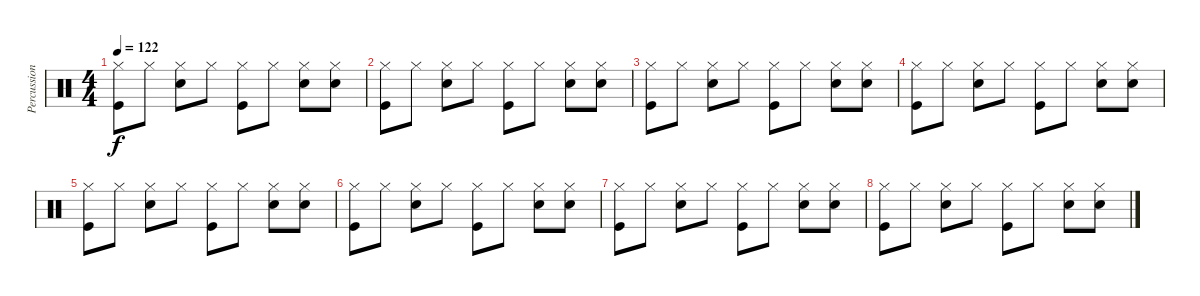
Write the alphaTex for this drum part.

\track ("Percussions" "Percussion") {instrument percussion}
\staff {score}
\articulation defaults
\ts (4 4)
\tempo 122
\clef neutral
\ks c
("Hi-Hat (closed)" "Kick (hit)").8{dy f volume 11} "Hi-Hat (closed)".8 ("Hi-Hat (closed)" "Snare (hit) 2").8 "Hi-Hat (closed)".8 ("Hi-Hat (closed)" "Kick (hit)").8 "Hi-Hat (closed)".8 ("Hi-Hat (closed)" "Snare (hit) 2").8 ("Hi-Hat (closed)" "Snare (hit) 2").8 |
("Hi-Hat (closed)" "Kick (hit)").8 "Hi-Hat (closed)".8 ("Hi-Hat (closed)" "Snare (hit) 2").8 "Hi-Hat (closed)".8 ("Hi-Hat (closed)" "Kick (hit)").8 "Hi-Hat (closed)".8 ("Hi-Hat (closed)" "Snare (hit) 2").8 ("Hi-Hat (closed)" "Snare (hit) 2").8 |
("Hi-Hat (closed)" "Kick (hit)").8{volume 8} "Hi-Hat (closed)".8 ("Hi-Hat (closed)" "Snare (hit) 2").8 "Hi-Hat (closed)".8 ("Hi-Hat (closed)" "Kick (hit)").8 "Hi-Hat (closed)".8 ("Hi-Hat (closed)" "Snare (hit) 2").8 ("Hi-Hat (closed)" "Snare (hit) 2").8 |
("Hi-Hat (closed)" "Kick (hit)").8 "Hi-Hat (closed)".8 ("Hi-Hat (closed)" "Snare (hit) 2").8 "Hi-Hat (closed)".8 ("Hi-Hat (closed)" "Kick (hit)").8 "Hi-Hat (closed)".8 ("Hi-Hat (closed)" "Snare (hit) 2").8 ("Hi-Hat (closed)" "Snare (hit) 2").8 |
("Hi-Hat (closed)" "Kick (hit)").8{volume 5} "Hi-Hat (closed)".8 ("Hi-Hat (closed)" "Snare (hit) 2").8 "Hi-Hat (closed)".8 ("Hi-Hat (closed)" "Kick (hit)").8 "Hi-Hat (closed)".8 ("Hi-Hat (closed)" "Snare (hit) 2").8 ("Hi-Hat (closed)" "Snare (hit) 2").8 |
("Hi-Hat (closed)" "Kick (hit)").8 "Hi-Hat (closed)".8 ("Hi-Hat (closed)" "Snare (hit) 2").8 "Hi-Hat (closed)".8 ("Hi-Hat (closed)" "Kick (hit)").8 "Hi-Hat (closed)".8 ("Hi-Hat (closed)" "Snare (hit) 2").8 ("Hi-Hat (closed)" "Snare (hit) 2").8 |
("Hi-Hat (closed)" "Kick (hit)").8{volume 1} "Hi-Hat (closed)".8 ("Hi-Hat (closed)" "Snare (hit) 2").8 "Hi-Hat (closed)".8 ("Hi-Hat (closed)" "Kick (hit)").8 "Hi-Hat (closed)".8 ("Hi-Hat (closed)" "Snare (hit) 2").8 ("Hi-Hat (closed)" "Snare (hit) 2").8 |
("Hi-Hat (closed)" "Kick (hit)").8 "Hi-Hat (closed)".8 ("Hi-Hat (closed)" "Snare (hit) 2").8 "Hi-Hat (closed)".8 ("Hi-Hat (closed)" "Kick (hit)").8 "Hi-Hat (closed)".8 ("Hi-Hat (closed)" "Snare (hit) 2").8 ("Hi-Hat (closed)" "Snare (hit) 2").8
